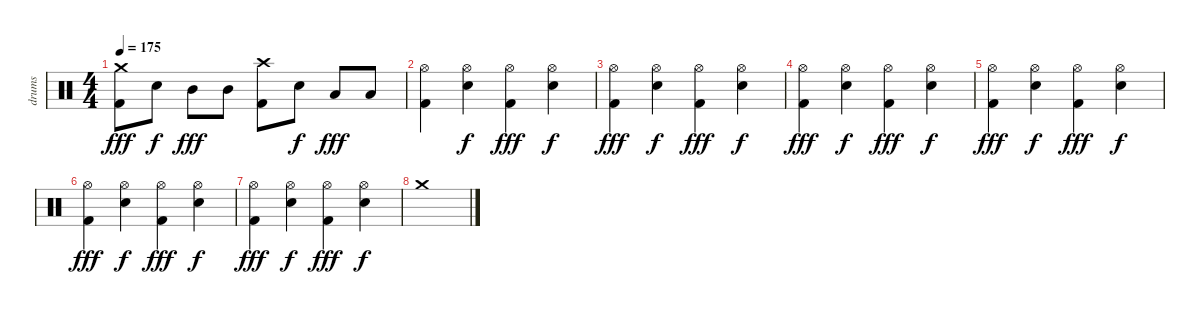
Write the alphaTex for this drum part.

\track ("drums" "drums") {instrument percussion}
\staff {score}
\articulation defaults
\ts (4 4)
\tempo 175
\clef neutral
\ks c
("Crash medium (hit)" "Kick (hit) 2").8{dy fff} "Snare (hit) 2".8{dy f} "Mid Tom (hit)".8{dy fff} "Mid Tom (hit)".8 ("Crash high (hit)" "Kick (hit) 2").8 "Snare (hit) 2".8{dy f} "Low Floor Tom (hit)".8{dy fff} "Low Floor Tom (hit)".8 |
("Hi-Hat (open)" "Kick (hit) 2").4 ("Hi-Hat (open)" "Snare (hit) 2").4{dy f} ("Hi-Hat (open)" "Kick (hit) 2").4{dy fff} ("Hi-Hat (open)" "Snare (hit) 2").4{dy f} |
("Hi-Hat (open)" "Kick (hit) 2").4{dy fff} ("Hi-Hat (open)" "Snare (hit) 2").4{dy f} ("Hi-Hat (open)" "Kick (hit) 2").4{dy fff} ("Hi-Hat (open)" "Snare (hit) 2").4{dy f} |
("Hi-Hat (open)" "Kick (hit) 2").4{dy fff} ("Hi-Hat (open)" "Snare (hit) 2").4{dy f} ("Hi-Hat (open)" "Kick (hit) 2").4{dy fff} ("Hi-Hat (open)" "Snare (hit) 2").4{dy f} |
("Hi-Hat (open)" "Kick (hit) 2").4{dy fff} ("Hi-Hat (open)" "Snare (hit) 2").4{dy f} ("Hi-Hat (open)" "Kick (hit) 2").4{dy fff} ("Hi-Hat (open)" "Snare (hit) 2").4{dy f} |
("Hi-Hat (open)" "Kick (hit) 2").4{dy fff} ("Hi-Hat (open)" "Snare (hit) 2").4{dy f} ("Hi-Hat (open)" "Kick (hit) 2").4{dy fff} ("Hi-Hat (open)" "Snare (hit) 2").4{dy f} |
("Hi-Hat (open)" "Kick (hit) 2").4{dy fff} ("Hi-Hat (open)" "Snare (hit) 2").4{dy f} ("Hi-Hat (open)" "Kick (hit) 2").4{dy fff} ("Hi-Hat (open)" "Snare (hit) 2").4{dy f} |
"Crash medium (hit)".1
